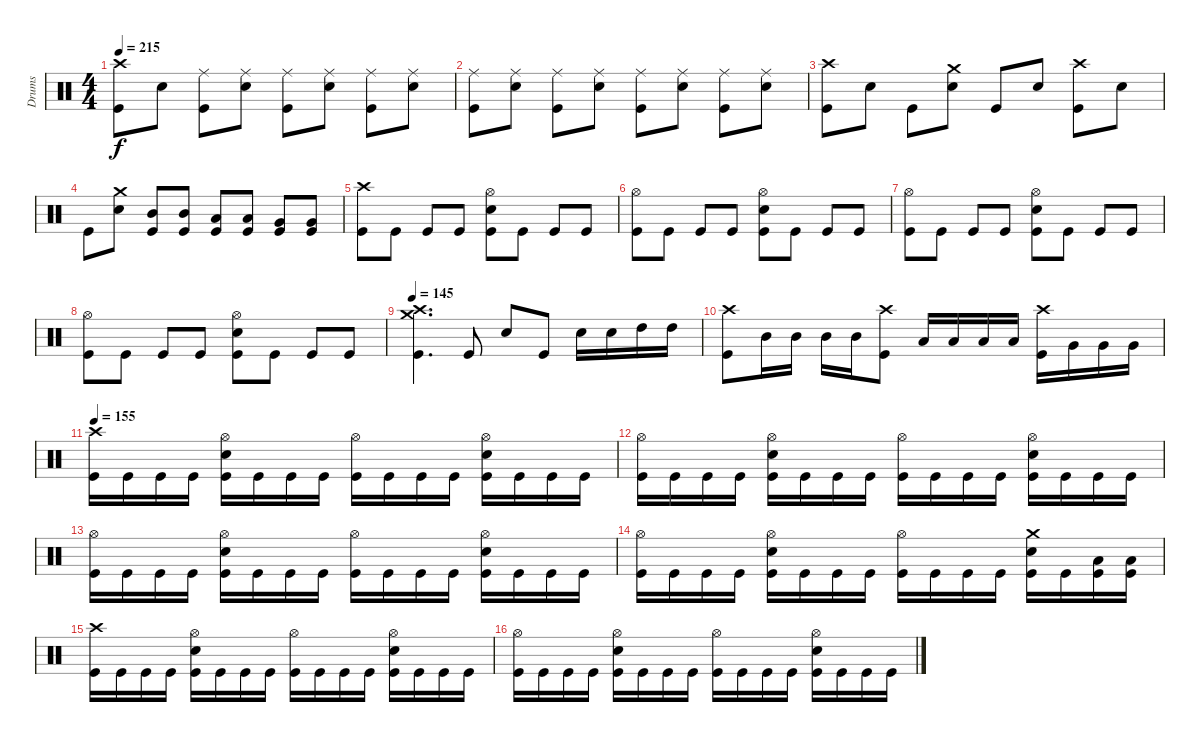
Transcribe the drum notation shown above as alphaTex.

\track ("Drums" "Drums") {instrument percussion}
\staff {score}
\articulation defaults
\ts (4 4)
\tempo 215
\clef neutral
\ks c
("Crash high (hit)" "Kick (hit)").8{dy f} "Snare (hit) 2".8 ("Ride (middle)" "Kick (hit)").8 ("Ride (middle)" "Snare (hit) 2").8 ("Ride (middle)" "Kick (hit)").8 ("Ride (middle)" "Snare (hit) 2").8 ("Ride (middle)" "Kick (hit)").8 ("Ride (middle)" "Snare (hit) 2").8 |
("Ride (middle)" "Kick (hit)").8 ("Ride (middle)" "Snare (hit) 2").8 ("Ride (middle)" "Kick (hit)").8 ("Ride (middle)" "Snare (hit) 2").8 ("Ride (middle)" "Kick (hit)").8 ("Ride (middle)" "Snare (hit) 2").8 ("Ride (middle)" "Kick (hit)").8 ("Ride (middle)" "Snare (hit) 2").8 |
("Crash high (hit)" "Kick (hit)").8 "Snare (hit) 2".8 "Kick (hit)".8 ("Crash medium (hit)" "Snare (hit) 2").8 "Kick (hit)".8 "Snare (hit) 2".8 ("Crash high (hit)" "Kick (hit)").8 "Snare (hit) 2".8 |
"Kick (hit)".8 ("Crash medium (hit)" "Snare (hit) 2").8 ("Mid Tom (hit)" "Kick (hit)").8 ("Mid Tom (hit)" "Kick (hit)").8 ("Low Tom (hit)" "Kick (hit)").8 ("Low Tom (hit)" "Kick (hit)").8 ("Very Low Tom (hit)" "Kick (hit)").8 ("Very Low Tom (hit)" "Kick (hit)").8 |
("Crash high (hit)" "Kick (hit)").8 "Kick (hit)".8 "Kick (hit)".8 "Kick (hit)".8 ("Hi-Hat (open)" "Snare (hit) 2" "Kick (hit)").8 "Kick (hit)".8 "Kick (hit)".8 "Kick (hit)".8 |
("Hi-Hat (open)" "Kick (hit)").8 "Kick (hit)".8 "Kick (hit)".8 "Kick (hit)".8 ("Hi-Hat (open)" "Snare (hit) 2" "Kick (hit)").8 "Kick (hit)".8 "Kick (hit)".8 "Kick (hit)".8 |
("Hi-Hat (open)" "Kick (hit)").8 "Kick (hit)".8 "Kick (hit)".8 "Kick (hit)".8 ("Hi-Hat (open)" "Snare (hit) 2" "Kick (hit)").8 "Kick (hit)".8 "Kick (hit)".8 "Kick (hit)".8 |
("Hi-Hat (open)" "Kick (hit)").8 "Kick (hit)".8 "Kick (hit)".8 "Kick (hit)".8 ("Hi-Hat (open)" "Snare (hit) 2" "Kick (hit)").8 "Kick (hit)".8 "Kick (hit)".8 "Kick (hit)".8 |
\tempo 155
\tempo 145
("Crash high (hit)" "Crash medium (hit)" "Kick (hit)").4{d} "Kick (hit)".8 "Snare (hit) 2".8 "Kick (hit)".8 "Snare (hit) 2".16 "Snare (hit) 2".16 "High Tom (hit)".16 "High Tom (hit)".16 |
("Crash high (hit)" "Kick (hit)").8 "Mid Tom (hit)".16 "Mid Tom (hit)".16 "Mid Tom (hit)".16 "Mid Tom (hit)".16 ("Crash high (hit)" "Kick (hit)").8 "Low Tom (hit)".16 "Low Tom (hit)".16 "Low Tom (hit)".16 "Low Tom (hit)".16 ("Crash high (hit)" "Kick (hit)").16 "Very Low Tom (hit)".16 "Very Low Tom (hit)".16 "Very Low Tom (hit)".16 |
\tempo 155
("Crash high (hit)" "Kick (hit)").16 "Kick (hit)".16 "Kick (hit)".16 "Kick (hit)".16 ("Hi-Hat (open)" "Snare (hit) 2" "Kick (hit)").16 "Kick (hit)".16 "Kick (hit)".16 "Kick (hit)".16 ("Hi-Hat (open)" "Kick (hit)").16 "Kick (hit)".16 "Kick (hit)".16 "Kick (hit)".16 ("Hi-Hat (open)" "Snare (hit) 2" "Kick (hit)").16 "Kick (hit)".16 "Kick (hit)".16 "Kick (hit)".16 |
("Hi-Hat (open)" "Kick (hit)").16 "Kick (hit)".16 "Kick (hit)".16 "Kick (hit)".16 ("Hi-Hat (open)" "Snare (hit) 2" "Kick (hit)").16 "Kick (hit)".16 "Kick (hit)".16 "Kick (hit)".16 ("Hi-Hat (open)" "Kick (hit)").16 "Kick (hit)".16 "Kick (hit)".16 "Kick (hit)".16 ("Hi-Hat (open)" "Snare (hit) 2" "Kick (hit)").16 "Kick (hit)".16 "Kick (hit)".16 "Kick (hit)".16 |
("Hi-Hat (open)" "Kick (hit)").16 "Kick (hit)".16 "Kick (hit)".16 "Kick (hit)".16 ("Hi-Hat (open)" "Snare (hit) 2" "Kick (hit)").16 "Kick (hit)".16 "Kick (hit)".16 "Kick (hit)".16 ("Hi-Hat (open)" "Kick (hit)").16 "Kick (hit)".16 "Kick (hit)".16 "Kick (hit)".16 ("Hi-Hat (open)" "Snare (hit) 2" "Kick (hit)").16 "Kick (hit)".16 "Kick (hit)".16 "Kick (hit)".16 |
("Hi-Hat (open)" "Kick (hit)").16 "Kick (hit)".16 "Kick (hit)".16 "Kick (hit)".16 ("Hi-Hat (open)" "Snare (hit) 2" "Kick (hit)").16 "Kick (hit)".16 "Kick (hit)".16 "Kick (hit)".16 ("Hi-Hat (open)" "Kick (hit)").16 "Kick (hit)".16 "Kick (hit)".16 "Kick (hit)".16 ("Crash medium (hit)" "Snare (hit) 2" "Kick (hit)").16 "Kick (hit)".16 ("Low Tom (hit)" "Kick (hit)").16 ("Low Tom (hit)" "Kick (hit)").16 |
("Crash high (hit)" "Kick (hit)").16 "Kick (hit)".16 "Kick (hit)".16 "Kick (hit)".16 ("Hi-Hat (open)" "Snare (hit) 2" "Kick (hit)").16 "Kick (hit)".16 "Kick (hit)".16 "Kick (hit)".16 ("Hi-Hat (open)" "Kick (hit)").16 "Kick (hit)".16 "Kick (hit)".16 "Kick (hit)".16 ("Hi-Hat (open)" "Snare (hit) 2" "Kick (hit)").16 "Kick (hit)".16 "Kick (hit)".16 "Kick (hit)".16 |
("Hi-Hat (open)" "Kick (hit)").16 "Kick (hit)".16 "Kick (hit)".16 "Kick (hit)".16 ("Hi-Hat (open)" "Snare (hit) 2" "Kick (hit)").16 "Kick (hit)".16 "Kick (hit)".16 "Kick (hit)".16 ("Hi-Hat (open)" "Kick (hit)").16 "Kick (hit)".16 "Kick (hit)".16 "Kick (hit)".16 ("Hi-Hat (open)" "Snare (hit) 2" "Kick (hit)").16 "Kick (hit)".16 "Kick (hit)".16 "Kick (hit)".16
